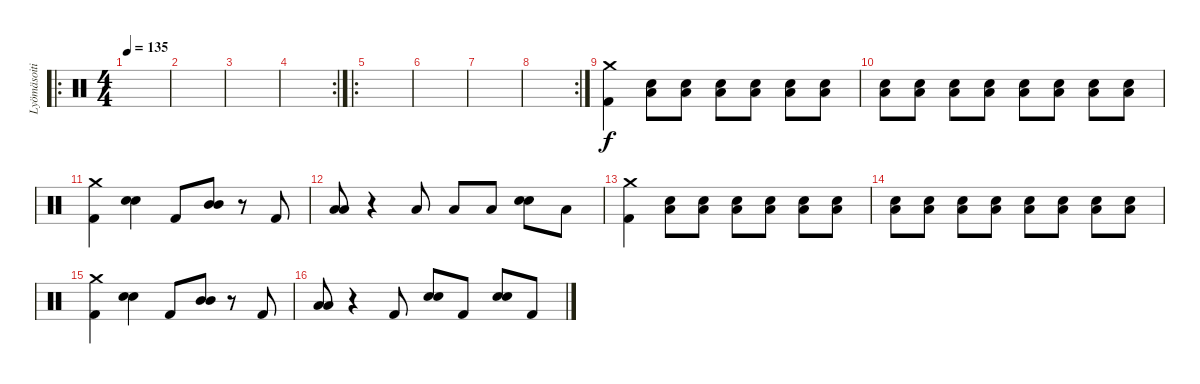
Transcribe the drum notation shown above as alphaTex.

\track ("Lyömäsoitin" "Lyömäsoiti") {instrument percussion}
\staff {score}
\articulation defaults
\ro
\ts (4 4)
\tempo 135
\clef neutral
\ks c
|
|
|
\rc 2
|
\ro
|
|
|
\rc 2
|
("Kick (hit) 2" "Crash medium (hit)").4 ("Electric Snare (hit)" "Low Tom (hit)").8{volume 0} ("Electric Snare (hit)" "Low Tom (hit)").8{volume 13} ("Electric Snare (hit)" "Low Tom (hit)").8 ("Electric Snare (hit)" "Low Tom (hit)").8 ("Electric Snare (hit)" "Low Tom (hit)").8 ("Electric Snare (hit)" "Low Tom (hit)").8 |
("Electric Snare (hit)" "Low Tom (hit)").8 ("Electric Snare (hit)" "Low Tom (hit)").8 ("Electric Snare (hit)" "Low Tom (hit)").8 ("Electric Snare (hit)" "Low Tom (hit)").8 ("Electric Snare (hit)" "Low Tom (hit)").8 ("Electric Snare (hit)" "Low Tom (hit)").8 ("Electric Snare (hit)" "Low Tom (hit)").8 ("Electric Snare (hit)" "Low Tom (hit)").8 |
("Kick (hit) 2" "Crash medium (hit)").4 ("Electric Snare (hit)" "Electric Snare (hit)").4 "Kick (hit) 2".8 ("Mid Tom (hit)" "Mid Tom (hit)").8 r.8 "Kick (hit) 2".8 |
("Low Tom (hit)" "Low Tom (hit)").8 r.4 "Low Tom (hit)".8 "Low Tom (hit)".8 "Low Tom (hit)".8 ("Electric Snare (hit)" "Electric Snare (hit)").8 "Low Tom (hit)".8 |
("Kick (hit) 2" "Crash medium (hit)").4 ("Electric Snare (hit)" "Low Tom (hit)").8{volume 0} ("Electric Snare (hit)" "Low Tom (hit)").8{volume 13} ("Electric Snare (hit)" "Low Tom (hit)").8 ("Electric Snare (hit)" "Low Tom (hit)").8 ("Electric Snare (hit)" "Low Tom (hit)").8 ("Electric Snare (hit)" "Low Tom (hit)").8 |
("Electric Snare (hit)" "Low Tom (hit)").8 ("Electric Snare (hit)" "Low Tom (hit)").8 ("Electric Snare (hit)" "Low Tom (hit)").8 ("Electric Snare (hit)" "Low Tom (hit)").8 ("Electric Snare (hit)" "Low Tom (hit)").8 ("Electric Snare (hit)" "Low Tom (hit)").8 ("Electric Snare (hit)" "Low Tom (hit)").8 ("Electric Snare (hit)" "Low Tom (hit)").8 |
("Kick (hit) 2" "Crash medium (hit)").4 ("Electric Snare (hit)" "Electric Snare (hit)").4 "Kick (hit) 2".8 ("Mid Tom (hit)" "Mid Tom (hit)").8 r.8 "Kick (hit) 2".8 |
("Low Tom (hit)" "Low Tom (hit)").8 r.4 "Kick (hit) 2".8 ("Electric Snare (hit)" "Electric Snare (hit)").8 "Kick (hit) 2".8 ("Electric Snare (hit)" "Electric Snare (hit)").8 "Kick (hit) 2".8
